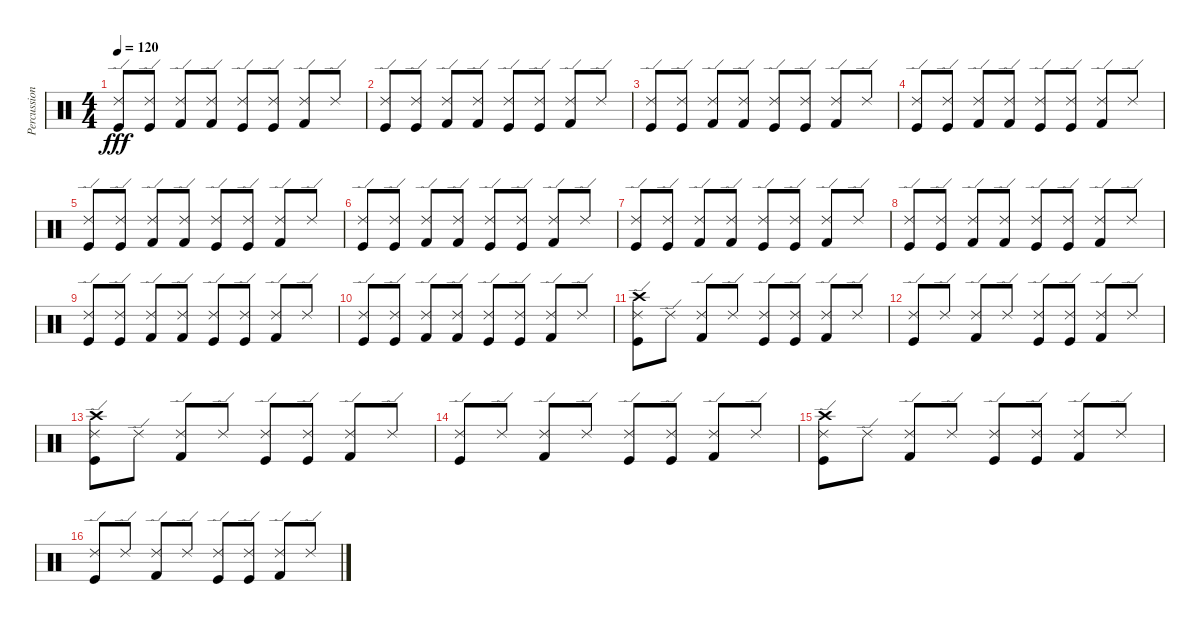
\track ("Percussion" "Percussion") {instrument percussion}
\staff {score}
\articulation defaults
\ts (4 4)
\tempo 120
\clef neutral
\ks c
("Kick (hit)" "Ride (edge) 2").8{dy fff} ("Kick (hit)" "Ride (edge) 2").8 ("Kick (hit) 2" "Ride (edge) 2").8 ("Kick (hit) 2" "Ride (edge) 2").8 ("Kick (hit)" "Ride (edge) 2").8 ("Kick (hit)" "Ride (edge) 2").8 ("Kick (hit) 2" "Ride (edge) 2").8 "Ride (edge) 2".8 |
("Kick (hit)" "Ride (edge) 2").8 ("Kick (hit)" "Ride (edge) 2").8 ("Kick (hit) 2" "Ride (edge) 2").8 ("Kick (hit) 2" "Ride (edge) 2").8 ("Kick (hit)" "Ride (edge) 2").8 ("Kick (hit)" "Ride (edge) 2").8 ("Kick (hit) 2" "Ride (edge) 2").8 "Ride (edge) 2".8 |
("Kick (hit)" "Ride (edge) 2").8 ("Kick (hit)" "Ride (edge) 2").8 ("Kick (hit) 2" "Ride (edge) 2").8 ("Kick (hit) 2" "Ride (edge) 2").8 ("Kick (hit)" "Ride (edge) 2").8 ("Kick (hit)" "Ride (edge) 2").8 ("Kick (hit) 2" "Ride (edge) 2").8 "Ride (edge) 2".8 |
("Kick (hit)" "Ride (edge) 2").8 ("Kick (hit)" "Ride (edge) 2").8 ("Kick (hit) 2" "Ride (edge) 2").8 ("Kick (hit) 2" "Ride (edge) 2").8 ("Kick (hit)" "Ride (edge) 2").8 ("Kick (hit)" "Ride (edge) 2").8 ("Kick (hit) 2" "Ride (edge) 2").8 "Ride (edge) 2".8 |
("Kick (hit)" "Ride (edge) 2").8 ("Kick (hit)" "Ride (edge) 2").8 ("Kick (hit) 2" "Ride (edge) 2").8 ("Kick (hit) 2" "Ride (edge) 2").8 ("Kick (hit)" "Ride (edge) 2").8 ("Kick (hit)" "Ride (edge) 2").8 ("Kick (hit) 2" "Ride (edge) 2").8 "Ride (edge) 2".8 |
("Kick (hit)" "Ride (edge) 2").8 ("Kick (hit)" "Ride (edge) 2").8 ("Kick (hit) 2" "Ride (edge) 2").8 ("Kick (hit) 2" "Ride (edge) 2").8 ("Kick (hit)" "Ride (edge) 2").8 ("Kick (hit)" "Ride (edge) 2").8 ("Kick (hit) 2" "Ride (edge) 2").8 "Ride (edge) 2".8 |
("Kick (hit)" "Ride (edge) 2").8 ("Kick (hit)" "Ride (edge) 2").8 ("Kick (hit) 2" "Ride (edge) 2").8 ("Kick (hit) 2" "Ride (edge) 2").8 ("Kick (hit)" "Ride (edge) 2").8 ("Kick (hit)" "Ride (edge) 2").8 ("Kick (hit) 2" "Ride (edge) 2").8 "Ride (edge) 2".8 |
("Kick (hit)" "Ride (edge) 2").8 ("Kick (hit)" "Ride (edge) 2").8 ("Kick (hit) 2" "Ride (edge) 2").8 ("Kick (hit) 2" "Ride (edge) 2").8 ("Kick (hit)" "Ride (edge) 2").8 ("Kick (hit)" "Ride (edge) 2").8 ("Kick (hit) 2" "Ride (edge) 2").8 "Ride (edge) 2".8 |
("Kick (hit)" "Ride (edge) 2").8 ("Kick (hit)" "Ride (edge) 2").8 ("Kick (hit) 2" "Ride (edge) 2").8 ("Kick (hit) 2" "Ride (edge) 2").8 ("Kick (hit)" "Ride (edge) 2").8 ("Kick (hit)" "Ride (edge) 2").8 ("Kick (hit) 2" "Ride (edge) 2").8 "Ride (edge) 2".8 |
("Kick (hit)" "Ride (edge) 2").8 ("Kick (hit)" "Ride (edge) 2").8 ("Kick (hit) 2" "Ride (edge) 2").8 ("Kick (hit) 2" "Ride (edge) 2").8 ("Kick (hit)" "Ride (edge) 2").8 ("Kick (hit)" "Ride (edge) 2").8 ("Kick (hit) 2" "Ride (edge) 2").8 "Ride (edge) 2".8 |
("Kick (hit)" "Crash high (hit)" "Ride (edge) 2").8 "Ride (edge) 2".8 ("Kick (hit) 2" "Ride (edge) 2").8 "Ride (edge) 2".8 ("Kick (hit)" "Ride (edge) 2").8 ("Kick (hit)" "Ride (edge) 2").8 ("Kick (hit) 2" "Ride (edge) 2").8 "Ride (edge) 2".8 |
("Kick (hit)" "Ride (edge) 2").8 "Ride (edge) 2".8 ("Kick (hit) 2" "Ride (edge) 2").8 "Ride (edge) 2".8 ("Kick (hit)" "Ride (edge) 2").8 ("Kick (hit)" "Ride (edge) 2").8 ("Kick (hit) 2" "Ride (edge) 2").8 "Ride (edge) 2".8 |
("Kick (hit)" "Crash high (hit)" "Ride (edge) 2").8 "Ride (edge) 2".8 ("Kick (hit) 2" "Ride (edge) 2").8 "Ride (edge) 2".8 ("Kick (hit)" "Ride (edge) 2").8 ("Kick (hit)" "Ride (edge) 2").8 ("Kick (hit) 2" "Ride (edge) 2").8 "Ride (edge) 2".8 |
("Kick (hit)" "Ride (edge) 2").8 "Ride (edge) 2".8 ("Kick (hit) 2" "Ride (edge) 2").8 "Ride (edge) 2".8 ("Kick (hit)" "Ride (edge) 2").8 ("Kick (hit)" "Ride (edge) 2").8 ("Kick (hit) 2" "Ride (edge) 2").8 "Ride (edge) 2".8 |
("Kick (hit)" "Crash high (hit)" "Ride (edge) 2").8 "Ride (edge) 2".8 ("Kick (hit) 2" "Ride (edge) 2").8 "Ride (edge) 2".8 ("Kick (hit)" "Ride (edge) 2").8 ("Kick (hit)" "Ride (edge) 2").8 ("Kick (hit) 2" "Ride (edge) 2").8 "Ride (edge) 2".8 |
("Kick (hit)" "Ride (edge) 2").8 "Ride (edge) 2".8 ("Kick (hit) 2" "Ride (edge) 2").8 "Ride (edge) 2".8 ("Kick (hit)" "Ride (edge) 2").8 ("Kick (hit)" "Ride (edge) 2").8 ("Kick (hit) 2" "Ride (edge) 2").8 "Ride (edge) 2".8
